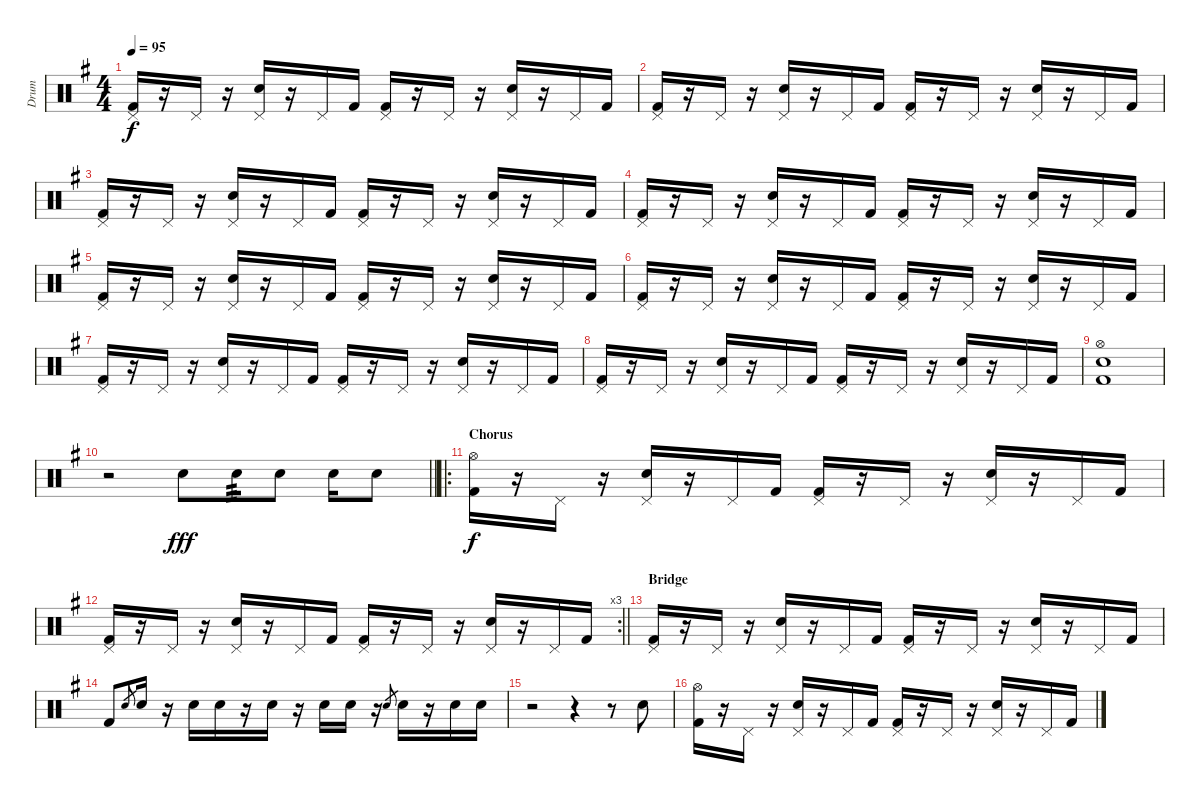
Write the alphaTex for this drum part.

\track ("Drum" "Drum") {instrument percussion}
\staff {score}
\articulation defaults
\ts (4 4)
\tempo 95
\clef neutral
\ks g
("Pedal Hi-Hat (hit)" "Kick (hit) 2").16{dy f} r.16 "Pedal Hi-Hat (hit)".16 r.16 ("Pedal Hi-Hat (hit)" "Electric Snare (hit)").16 r.16 "Pedal Hi-Hat (hit)".16 "Kick (hit) 2".16 ("Pedal Hi-Hat (hit)" "Kick (hit) 2").16 r.16 "Pedal Hi-Hat (hit)".16 r.16 ("Pedal Hi-Hat (hit)" "Electric Snare (hit)").16 r.16 "Pedal Hi-Hat (hit)".16 "Kick (hit) 2".16 |
("Pedal Hi-Hat (hit)" "Kick (hit) 2").16 r.16 "Pedal Hi-Hat (hit)".16 r.16 ("Pedal Hi-Hat (hit)" "Electric Snare (hit)").16 r.16 "Pedal Hi-Hat (hit)".16 "Kick (hit) 2".16 ("Pedal Hi-Hat (hit)" "Kick (hit) 2").16 r.16 "Pedal Hi-Hat (hit)".16 r.16 ("Pedal Hi-Hat (hit)" "Electric Snare (hit)").16 r.16 "Pedal Hi-Hat (hit)".16 "Kick (hit) 2".16 |
("Pedal Hi-Hat (hit)" "Kick (hit) 2").16 r.16 "Pedal Hi-Hat (hit)".16 r.16 ("Pedal Hi-Hat (hit)" "Electric Snare (hit)").16 r.16 "Pedal Hi-Hat (hit)".16 "Kick (hit) 2".16 ("Pedal Hi-Hat (hit)" "Kick (hit) 2").16 r.16 "Pedal Hi-Hat (hit)".16 r.16 ("Pedal Hi-Hat (hit)" "Electric Snare (hit)").16 r.16 "Pedal Hi-Hat (hit)".16 "Kick (hit) 2".16 |
("Pedal Hi-Hat (hit)" "Kick (hit) 2").16 r.16 "Pedal Hi-Hat (hit)".16 r.16 ("Pedal Hi-Hat (hit)" "Electric Snare (hit)").16 r.16 "Pedal Hi-Hat (hit)".16 "Kick (hit) 2".16 ("Pedal Hi-Hat (hit)" "Kick (hit) 2").16 r.16 "Pedal Hi-Hat (hit)".16 r.16 ("Pedal Hi-Hat (hit)" "Electric Snare (hit)").16 r.16 "Pedal Hi-Hat (hit)".16 "Kick (hit) 2".16 |
("Pedal Hi-Hat (hit)" "Kick (hit) 2").16 r.16 "Pedal Hi-Hat (hit)".16 r.16 ("Pedal Hi-Hat (hit)" "Electric Snare (hit)").16 r.16 "Pedal Hi-Hat (hit)".16 "Kick (hit) 2".16 ("Pedal Hi-Hat (hit)" "Kick (hit) 2").16 r.16 "Pedal Hi-Hat (hit)".16 r.16 ("Pedal Hi-Hat (hit)" "Electric Snare (hit)").16 r.16 "Pedal Hi-Hat (hit)".16 "Kick (hit) 2".16 |
("Pedal Hi-Hat (hit)" "Kick (hit) 2").16 r.16 "Pedal Hi-Hat (hit)".16 r.16 ("Pedal Hi-Hat (hit)" "Electric Snare (hit)").16 r.16 "Pedal Hi-Hat (hit)".16 "Kick (hit) 2".16 ("Pedal Hi-Hat (hit)" "Kick (hit) 2").16 r.16 "Pedal Hi-Hat (hit)".16 r.16 ("Pedal Hi-Hat (hit)" "Electric Snare (hit)").16 r.16 "Pedal Hi-Hat (hit)".16 "Kick (hit) 2".16 |
("Pedal Hi-Hat (hit)" "Kick (hit) 2").16 r.16 "Pedal Hi-Hat (hit)".16 r.16 ("Pedal Hi-Hat (hit)" "Electric Snare (hit)").16 r.16 "Pedal Hi-Hat (hit)".16 "Kick (hit) 2".16 ("Pedal Hi-Hat (hit)" "Kick (hit) 2").16 r.16 "Pedal Hi-Hat (hit)".16 r.16 ("Pedal Hi-Hat (hit)" "Electric Snare (hit)").16 r.16 "Pedal Hi-Hat (hit)".16 "Kick (hit) 2".16 |
("Pedal Hi-Hat (hit)" "Kick (hit) 2").16 r.16 "Pedal Hi-Hat (hit)".16 r.16 ("Pedal Hi-Hat (hit)" "Electric Snare (hit)").16 r.16 "Pedal Hi-Hat (hit)".16 "Kick (hit) 2".16 ("Pedal Hi-Hat (hit)" "Kick (hit) 2").16 r.16 "Pedal Hi-Hat (hit)".16 r.16 ("Pedal Hi-Hat (hit)" "Electric Snare (hit)").16 r.16 "Pedal Hi-Hat (hit)".16 "Kick (hit) 2".16 |
("Hi-Hat (open)" "Electric Snare (hit)" "Kick (hit) 2").1 |
\barLineRight lightlight
r.2 "Electric Snare (hit)".8{dy fff} "Electric Snare (hit)".16{tp 3} "Electric Snare (hit)".8 "Electric Snare (hit)".16 "Electric Snare (hit)".8 |
\ro
\section ("" "Chorus")
("Hi-Hat (open)" "Kick (hit) 2").16{dy f} r.16 "Pedal Hi-Hat (hit)".16 r.16 ("Pedal Hi-Hat (hit)" "Electric Snare (hit)").16 r.16 "Pedal Hi-Hat (hit)".16 "Kick (hit) 2".16 ("Pedal Hi-Hat (hit)" "Kick (hit) 2").16 r.16 "Pedal Hi-Hat (hit)".16 r.16 ("Pedal Hi-Hat (hit)" "Electric Snare (hit)").16 r.16 "Pedal Hi-Hat (hit)".16 "Kick (hit) 2".16 |
\rc 3
\barLineRight lightlight
("Pedal Hi-Hat (hit)" "Kick (hit) 2").16 r.16 "Pedal Hi-Hat (hit)".16 r.16 ("Pedal Hi-Hat (hit)" "Electric Snare (hit)").16 r.16 "Pedal Hi-Hat (hit)".16 "Kick (hit) 2".16 ("Pedal Hi-Hat (hit)" "Kick (hit) 2").16 r.16 "Pedal Hi-Hat (hit)".16 r.16 ("Pedal Hi-Hat (hit)" "Electric Snare (hit)").16 r.16 "Pedal Hi-Hat (hit)".16 "Kick (hit) 2".16 |
\section ("" "Bridge")
("Pedal Hi-Hat (hit)" "Kick (hit) 2").16 r.16 "Pedal Hi-Hat (hit)".16 r.16 ("Pedal Hi-Hat (hit)" "Electric Snare (hit)").16 r.16 "Pedal Hi-Hat (hit)".16 "Kick (hit) 2".16 ("Pedal Hi-Hat (hit)" "Kick (hit) 2").16 r.16 "Pedal Hi-Hat (hit)".16 r.16 ("Pedal Hi-Hat (hit)" "Electric Snare (hit)").16 r.16 "Pedal Hi-Hat (hit)".16 "Kick (hit) 2".16 |
"Kick (hit) 2".8 "Electric Snare (hit)".8{gr} "Electric Snare (hit)".16 r.16 "Electric Snare (hit)".16 "Electric Snare (hit)".16 r.16 "Electric Snare (hit)".16 r.16 "Electric Snare (hit)".16 "Electric Snare (hit)".16 r.16 "Electric Snare (hit)".8{gr} "Electric Snare (hit)".16 r.16 "Electric Snare (hit)".16 "Electric Snare (hit)".16 |
r.2 r.4 r.8 "Electric Snare (hit)".8 |
("Hi-Hat (open)" "Kick (hit) 2").16 r.16 "Pedal Hi-Hat (hit)".16 r.16 ("Pedal Hi-Hat (hit)" "Electric Snare (hit)").16 r.16 "Pedal Hi-Hat (hit)".16 "Kick (hit) 2".16 ("Pedal Hi-Hat (hit)" "Kick (hit) 2").16 r.16 "Pedal Hi-Hat (hit)".16 r.16 ("Pedal Hi-Hat (hit)" "Electric Snare (hit)").16 r.16 "Pedal Hi-Hat (hit)".16 "Kick (hit) 2".16
